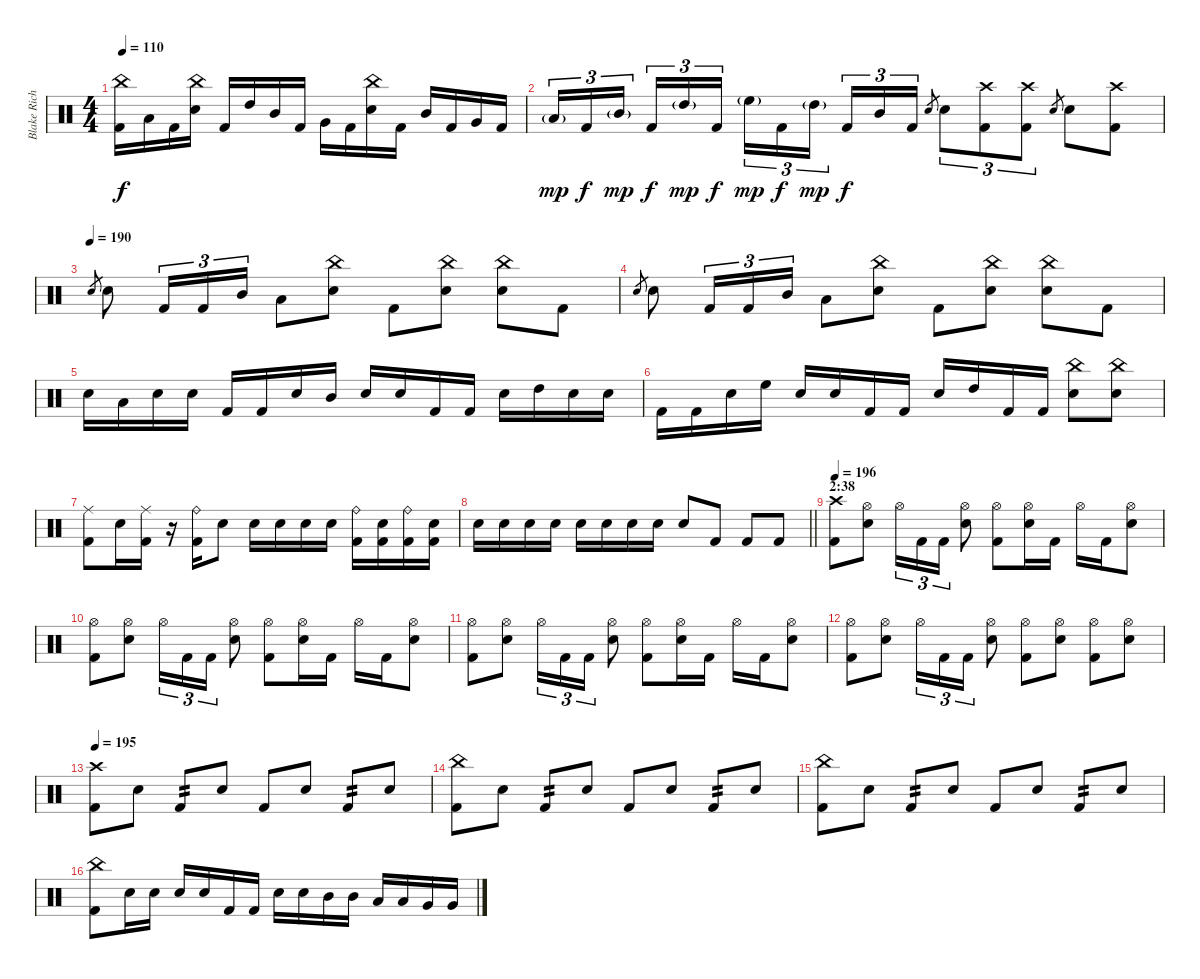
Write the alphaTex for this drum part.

\track ("Blake Richardson" "Blake Rich") {instrument percussion}
\staff {score}
\articulation defaults
\ts (4 4)
\tempo 110
\clef neutral
\ks c
("China (hit)" "Kick (hit) 2").16{dy f} "Low Tom (hit)".16 "Kick (hit) 2".16 ("China (hit)" "Electric Snare (hit)").16 "Kick (hit) 2".16 "High Tom (hit)".16 "Mid Tom (hit)".16 "Kick (hit) 2".16 "Very Low Tom (hit)".16 "Kick (hit) 2".16 ("China (hit)" "Electric Snare (hit)").16 "Kick (hit) 2".16 "Mid Tom (hit)".16 "Kick (hit) 2".16 "Very Low Tom (hit)".16 "Kick (hit) 2".16 |
"Low Tom (hit)"{g}.16{tu (3 2) dy mp} "Kick (hit) 2".16{tu (3 2) dy f} "Mid Tom (hit)"{g}.16{tu (3 2) dy mp beam splitsecondary} "Kick (hit) 2".16{tu (3 2) dy f} "High Tom (hit)"{g}.16{tu (3 2) dy mp} "Kick (hit) 2".16{tu (3 2) dy f} "High Floor Tom (hit)"{g}.16{tu (3 2) dy mp} "Kick (hit) 2".16{tu (3 2) dy f} "High Tom (hit)"{g}.16{tu (3 2) dy mp beam splitsecondary} "Kick (hit) 2".16{tu (3 2) dy f} "Mid Tom (hit)".16{tu (3 2)} "Kick (hit) 2".16{tu (3 2)} "Electric Snare (hit)".8{gr} "Electric Snare (hit)".8{tu (3 2)} ("Crash high (hit)" "Kick (hit) 2").8{tu (3 2)} ("Crash high (hit)" "Kick (hit) 2").8{tu (3 2)} "Electric Snare (hit)".8{gr} "Electric Snare (hit)".8 ("Crash high (hit)" "Kick (hit) 2").8 |
\tempo (190)
"Electric Snare (hit)".8{gr} "Electric Snare (hit)".8 "Kick (hit) 2".16{tu (3 2)} "Kick (hit) 2".16{tu (3 2)} "Mid Tom (hit)".16{tu (3 2)} "Low Tom (hit)".8 ("China (hit)" "Electric Snare (hit)").8 "Kick (hit) 2".8 ("China (hit)" "Electric Snare (hit)").8 ("China (hit)" "Electric Snare (hit)").8 "Kick (hit) 2".8 |
"Electric Snare (hit)".8{gr} "Electric Snare (hit)".8 "Kick (hit) 2".16{tu (3 2)} "Kick (hit) 2".16{tu (3 2)} "Mid Tom (hit)".16{tu (3 2)} "Low Tom (hit)".8 ("China (hit)" "Electric Snare (hit)").8 "Kick (hit) 2".8 ("China (hit)" "Electric Snare (hit)").8 ("China (hit)" "Electric Snare (hit)").8 "Kick (hit) 2".8 |
"Electric Snare (hit)".16 "Low Tom (hit)".16 "Electric Snare (hit)".16 "Electric Snare (hit)".16 "Kick (hit) 2".16 "Kick (hit) 2".16 "Electric Snare (hit)".16 "Mid Tom (hit)".16 "Electric Snare (hit)".16 "Electric Snare (hit)".16 "Kick (hit) 2".16 "Kick (hit) 2".16 "Electric Snare (hit)".16 "High Tom (hit)".16 "Electric Snare (hit)".16 "Electric Snare (hit)".16 |
"Kick (hit) 2".16 "Kick (hit) 2".16 "Electric Snare (hit)".16 "High Floor Tom (hit)".16 "Electric Snare (hit)".16 "Electric Snare (hit)".16 "Kick (hit) 2".16 "Kick (hit) 2".16 "Electric Snare (hit)".16 "High Tom (hit)".16 "Kick (hit) 2".16 "Kick (hit) 2".16 ("China (hit)" "Electric Snare (hit)").8 ("China (hit)" "Electric Snare (hit)").8 |
("Ride (middle)" "Kick (hit) 2").8 "Electric Snare (hit)".16 ("Ride (middle)" "Kick (hit) 2").16 r.16 ("Ride (bell)" "Kick (hit) 2").16 "Electric Snare (hit)".8 "Electric Snare (hit)".16 "Electric Snare (hit)".16 "Electric Snare (hit)".16 "Electric Snare (hit)".16 ("Ride (bell)" "Kick (hit) 2").16 ("Electric Snare (hit)" "Kick (hit) 2").16 ("Ride (bell)" "Kick (hit) 2").16 ("Electric Snare (hit)" "Kick (hit) 2").16 |
\barLineRight lightlight "Electric Snare (hit)".16 "Electric Snare (hit)".16 "Electric Snare (hit)".16 "Electric Snare (hit)".16 "Electric Snare (hit)".16 "Electric Snare (hit)".16 "Electric Snare (hit)".16 "Electric Snare (hit)".16 "Electric Snare (hit)".8 "Kick (hit) 2".8 "Kick (hit) 2".8 "Kick (hit) 2".8
|
\section ("" "2:38")
\tempo 196
("Crash high (hit)" "Kick (hit) 2").8 ("Hi-Hat (open)" "Electric Snare (hit)").8 "Hi-Hat (open)".16{tu (3 2)} "Kick (hit) 2".16{tu (3 2)} "Kick (hit) 2".16{tu (3 2)} ("Hi-Hat (open)" "Electric Snare (hit)").8 ("Hi-Hat (open)" "Kick (hit) 2").8 ("Hi-Hat (open)" "Electric Snare (hit)").16 "Kick (hit) 2".16 "Hi-Hat (open)".16 "Kick (hit) 2".16 ("Hi-Hat (open)" "Electric Snare (hit)").8 |
("Hi-Hat (open)" "Kick (hit) 2").8 ("Hi-Hat (open)" "Electric Snare (hit)").8 "Hi-Hat (open)".16{tu (3 2)} "Kick (hit) 2".16{tu (3 2)} "Kick (hit) 2".16{tu (3 2)} ("Hi-Hat (open)" "Electric Snare (hit)").8 ("Hi-Hat (open)" "Kick (hit) 2").8 ("Hi-Hat (open)" "Electric Snare (hit)").16 "Kick (hit) 2".16 "Hi-Hat (open)".16 "Kick (hit) 2".16 ("Hi-Hat (open)" "Electric Snare (hit)").8 |
("Hi-Hat (open)" "Kick (hit) 2").8 ("Hi-Hat (open)" "Electric Snare (hit)").8 "Hi-Hat (open)".16{tu (3 2)} "Kick (hit) 2".16{tu (3 2)} "Kick (hit) 2".16{tu (3 2)} ("Hi-Hat (open)" "Electric Snare (hit)").8 ("Hi-Hat (open)" "Kick (hit) 2").8 ("Hi-Hat (open)" "Electric Snare (hit)").16 "Kick (hit) 2".16 "Hi-Hat (open)".16 "Kick (hit) 2".16 ("Hi-Hat (open)" "Electric Snare (hit)").8 |
("Hi-Hat (open)" "Kick (hit) 2").8 ("Hi-Hat (open)" "Electric Snare (hit)").8 "Hi-Hat (open)".16{tu (3 2)} "Kick (hit) 2".16{tu (3 2)} "Kick (hit) 2".16{tu (3 2)} ("Hi-Hat (open)" "Electric Snare (hit)").8 ("Hi-Hat (open)" "Kick (hit) 2").8 ("Hi-Hat (open)" "Electric Snare (hit)").8 ("Hi-Hat (open)" "Kick (hit) 2").8 ("Hi-Hat (open)" "Electric Snare (hit)").8 |
\tempo 195
("Crash high (hit)" "Kick (hit) 2").8 "Electric Snare (hit)".8 "Kick (hit) 2".8{tp 2} "Electric Snare (hit)".8 "Kick (hit) 2".8 "Electric Snare (hit)".8 "Kick (hit) 2".8{tp 2} "Electric Snare (hit)".8 |
("China (hit)" "Kick (hit) 2").8 "Electric Snare (hit)".8 "Kick (hit) 2".8{tp 2} "Electric Snare (hit)".8 "Kick (hit) 2".8 "Electric Snare (hit)".8 "Kick (hit) 2".8{tp 2} "Electric Snare (hit)".8 |
("China (hit)" "Kick (hit) 2").8 "Electric Snare (hit)".8 "Kick (hit) 2".8{tp 2} "Electric Snare (hit)".8 "Kick (hit) 2".8 "Electric Snare (hit)".8 "Kick (hit) 2".8{tp 2} "Electric Snare (hit)".8 |
("China (hit)" "Kick (hit) 2").8 "Electric Snare (hit)".16 "Electric Snare (hit)".16 "Electric Snare (hit)".16 "Electric Snare (hit)".16 "Kick (hit) 2".16 "Kick (hit) 2".16 "Electric Snare (hit)".16 "Electric Snare (hit)".16 "Mid Tom (hit)".16 "Mid Tom (hit)".16 "Low Tom (hit)".16 "Low Tom (hit)".16 "Very Low Tom (hit)".16 "Very Low Tom (hit)".16
